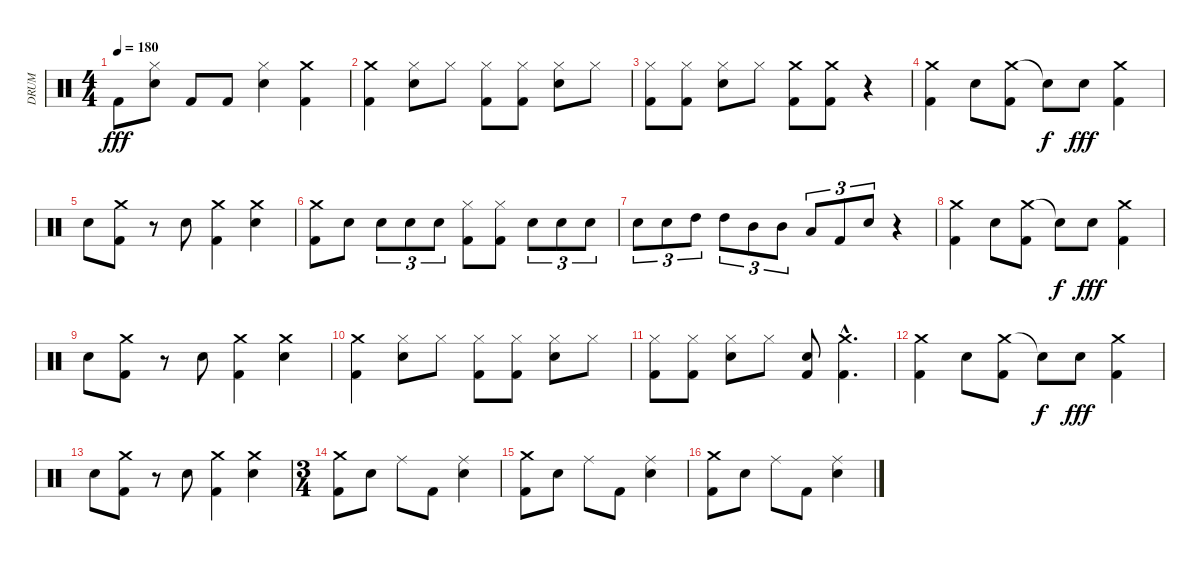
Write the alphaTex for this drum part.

\track ("DRUM" "DRUM") {instrument percussion}
\staff {score}
\articulation defaults
\ts (4 4)
\tempo 180
\clef neutral
\ks c "Kick (hit) 2".8{dy fff}
("Hi-Hat (closed)" "Snare (hit) 2").8 "Kick (hit) 2".8 "Kick (hit) 2".8 ("Hi-Hat (closed)" "Snare (hit) 2").4 ("Crash medium (hit)" "Kick (hit) 2").4 |
("Crash medium (hit)" "Kick (hit) 2").4 ("Hi-Hat (closed)" "Snare (hit) 2").8 "Hi-Hat (closed)".8 ("Hi-Hat (closed)" "Kick (hit) 2").8 ("Hi-Hat (closed)" "Kick (hit) 2").8 ("Hi-Hat (closed)" "Snare (hit) 2").8 "Hi-Hat (closed)".8 |
("Hi-Hat (closed)" "Kick (hit) 2").8 ("Hi-Hat (closed)" "Kick (hit) 2").8 ("Hi-Hat (closed)" "Snare (hit) 2").8 "Hi-Hat (closed)".8 ("Crash medium (hit)" "Kick (hit) 2").8 ("Crash medium (hit)" "Kick (hit) 2").8 r.4 |
("Crash medium (hit)" "Kick (hit) 2").4 "Snare (hit) 2".8 ("Crash medium (hit)" "Kick (hit) 2").8 "Snare (hit)"{t}.8{dy f} "Snare (hit) 2".8{dy fff} ("Crash medium (hit)" "Kick (hit) 2").4 |
"Snare (hit) 2".8 ("Crash medium (hit)" "Kick (hit) 2").8 r.8 "Snare (hit) 2".8 ("Crash medium (hit)" "Kick (hit) 2").4 ("Crash medium (hit)" "Snare (hit) 2").4 |
("Crash medium (hit)" "Kick (hit) 2").8 "Snare (hit) 2".8 "Snare (hit) 2".8{tu (3 2)} "Snare (hit) 2".8{tu (3 2)} "Snare (hit) 2".8{tu (3 2)} ("Hi-Hat (closed)" "Kick (hit) 2").8 ("Hi-Hat (closed)" "Kick (hit) 2").8 "Snare (hit) 2".8{tu (3 2)} "Snare (hit) 2".8{tu (3 2)} "Snare (hit) 2".8{tu (3 2)} |
"Snare (hit) 2".8{tu (3 2)} "Snare (hit) 2".8{tu (3 2)} "High Tom (hit)".8{tu (3 2)} "High Tom (hit)".8{tu (3 2)} "Mid Tom (hit)".8{tu (3 2)} "Mid Tom (hit)".8{tu (3 2)} "Low Tom (hit)".8{tu (3 2)} "Kick (hit) 2".8{tu (3 2)} "Snare (hit) 2".8{tu (3 2)} r.4 |
("Crash medium (hit)" "Kick (hit) 2").4 "Snare (hit) 2".8 ("Crash medium (hit)" "Kick (hit) 2").8 "Snare (hit)"{t}.8{dy f} "Snare (hit) 2".8{dy fff} ("Crash medium (hit)" "Kick (hit) 2").4 |
"Snare (hit) 2".8 ("Crash medium (hit)" "Kick (hit) 2").8 r.8 "Snare (hit) 2".8 ("Crash medium (hit)" "Kick (hit) 2").4 ("Crash medium (hit)" "Snare (hit) 2").4 |
("Crash medium (hit)" "Kick (hit) 2").4 ("Hi-Hat (closed)" "Snare (hit) 2").8 "Hi-Hat (closed)".8 ("Hi-Hat (closed)" "Kick (hit) 2").8 ("Hi-Hat (closed)" "Kick (hit) 2").8 ("Hi-Hat (closed)" "Snare (hit) 2").8 "Hi-Hat (closed)".8 |
("Hi-Hat (closed)" "Kick (hit) 2").8 ("Hi-Hat (closed)" "Kick (hit) 2").8 ("Hi-Hat (closed)" "Snare (hit) 2").8 "Hi-Hat (closed)".8 ("Snare (hit) 2" "Kick (hit) 2").8 ("Crash medium (hit)"{hac} "Kick (hit) 2"{hac}).4{d} |
("Crash medium (hit)" "Kick (hit) 2").4 "Snare (hit) 2".8 ("Crash medium (hit)" "Kick (hit) 2").8 "Snare (hit)"{t}.8{dy f} "Snare (hit) 2".8{dy fff} ("Crash medium (hit)" "Kick (hit) 2").4 |
"Snare (hit) 2".8 ("Crash medium (hit)" "Kick (hit) 2").8 r.8 "Snare (hit) 2".8 ("Crash medium (hit)" "Kick (hit) 2").4 ("Crash medium (hit)" "Snare (hit) 2").4 |
\ts (3 4)
("Crash medium (hit)" "Kick (hit) 2").8 "Snare (hit) 2".8 "Ride (middle)".8 "Kick (hit) 2".8 ("Ride (middle)" "Snare (hit) 2").4 |
("Crash medium (hit)" "Kick (hit) 2").8 "Snare (hit) 2".8 "Ride (middle)".8 "Kick (hit) 2".8 ("Ride (middle)" "Snare (hit) 2").4 |
("Crash medium (hit)" "Kick (hit) 2").8 "Snare (hit) 2".8 "Ride (middle)".8 "Kick (hit) 2".8 ("Ride (middle)" "Snare (hit) 2").4
